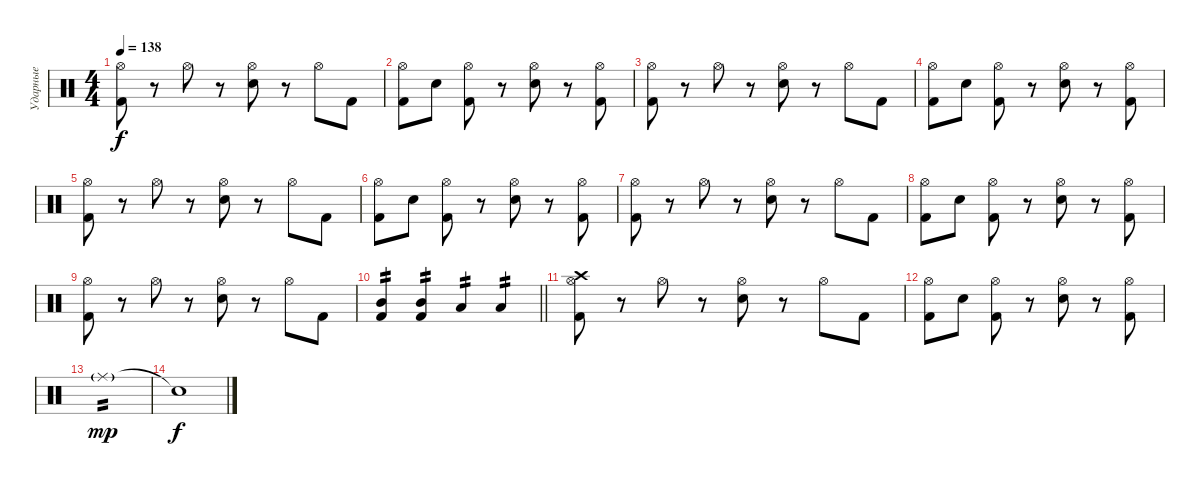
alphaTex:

\track ("Ударные" "Ударные") {instrument percussion}
\staff {score}
\articulation defaults
\ts (4 4)
\tempo 138
\clef neutral
\ks c
("Hi-Hat (open)" "Kick (hit) 2").8{dy f} r.8 "Hi-Hat (open)".8 r.8 ("Hi-Hat (open)" "Snare (hit) 2").8 r.8 "Hi-Hat (open)".8 "Kick (hit) 2".8 |
("Hi-Hat (open)" "Kick (hit) 2").8 "Snare (hit) 2".8 ("Hi-Hat (open)" "Kick (hit) 2").8 r.8 ("Hi-Hat (open)" "Snare (hit) 2").8 r.8 ("Hi-Hat (open)" "Kick (hit) 2").8 |
("Hi-Hat (open)" "Kick (hit) 2").8 r.8 "Hi-Hat (open)".8 r.8 ("Hi-Hat (open)" "Snare (hit) 2").8 r.8 "Hi-Hat (open)".8 "Kick (hit) 2".8 |
("Hi-Hat (open)" "Kick (hit) 2").8 "Snare (hit) 2".8 ("Hi-Hat (open)" "Kick (hit) 2").8 r.8 ("Hi-Hat (open)" "Snare (hit) 2").8 r.8 ("Hi-Hat (open)" "Kick (hit) 2").8 |
("Hi-Hat (open)" "Kick (hit) 2").8 r.8 "Hi-Hat (open)".8 r.8 ("Hi-Hat (open)" "Snare (hit) 2").8 r.8 "Hi-Hat (open)".8 "Kick (hit) 2".8 |
("Hi-Hat (open)" "Kick (hit) 2").8 "Snare (hit) 2".8 ("Hi-Hat (open)" "Kick (hit) 2").8 r.8 ("Hi-Hat (open)" "Snare (hit) 2").8 r.8 ("Hi-Hat (open)" "Kick (hit) 2").8 |
("Hi-Hat (open)" "Kick (hit) 2").8 r.8 "Hi-Hat (open)".8 r.8 ("Hi-Hat (open)" "Snare (hit) 2").8 r.8 "Hi-Hat (open)".8 "Kick (hit) 2".8 |
("Hi-Hat (open)" "Kick (hit) 2").8 "Snare (hit) 2".8 ("Hi-Hat (open)" "Kick (hit) 2").8 r.8 ("Hi-Hat (open)" "Snare (hit) 2").8 r.8 ("Hi-Hat (open)" "Kick (hit) 2").8 |
("Hi-Hat (open)" "Kick (hit) 2").8 r.8 "Hi-Hat (open)".8 r.8 ("Hi-Hat (open)" "Snare (hit) 2").8 r.8 "Hi-Hat (open)".8 "Kick (hit) 2".8 |
\barLineRight lightlight
("Mid Tom (hit)" "Kick (hit) 2").4{tp 2} ("Mid Tom (hit)" "Kick (hit) 2").4{tp 2} "Low Tom (hit)".4{tp 2} "Low Tom (hit)".4{tp 2} |
("Hi-Hat (open)" "Kick (hit) 2" "Crash high (hit)").8 r.8 "Hi-Hat (open)".8 r.8 ("Hi-Hat (open)" "Snare (hit) 2").8 r.8 "Hi-Hat (open)".8 "Kick (hit) 2".8 |
("Hi-Hat (open)" "Kick (hit) 2").8 "Snare (hit) 2".8 ("Hi-Hat (open)" "Kick (hit) 2").8 r.8 ("Hi-Hat (open)" "Snare (hit) 2").8 r.8 ("Hi-Hat (open)" "Kick (hit) 2").8 |
"Ride (middle)"{g}.1{tp 2 dy mp volume 14} |
"Snare (hit)"{t}.1{dy f}
